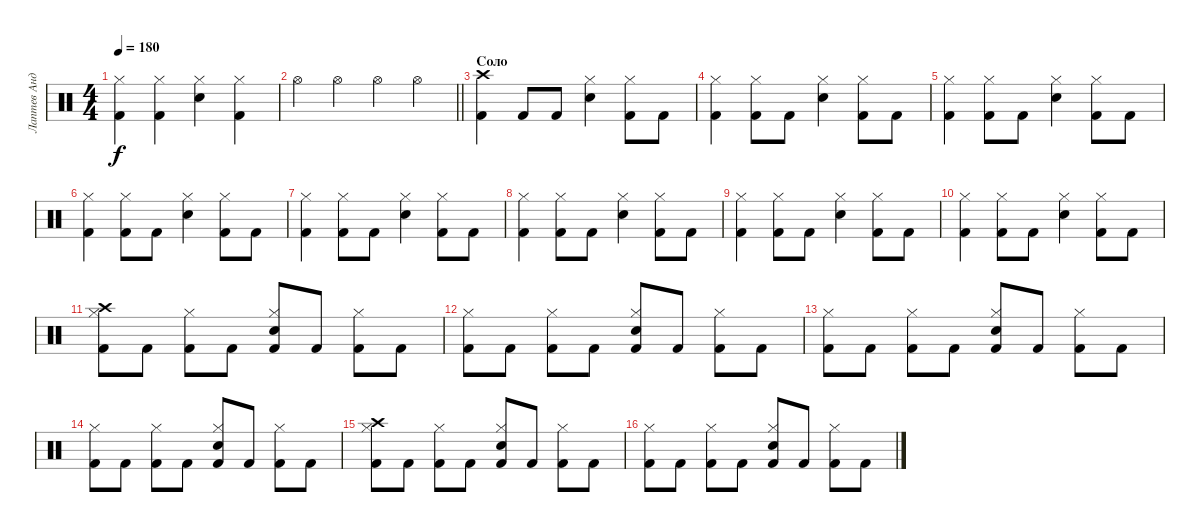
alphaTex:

\track ("Лаптев Андрей" "Лаптев Анд") {instrument percussion}
\staff {score}
\articulation defaults
\ts (4 4)
\tempo 180
\clef neutral
\ks c
("Kick (hit) 2" "Hi-Hat (closed)").4{dy f} ("Kick (hit) 2" "Hi-Hat (closed)").4 ("Snare (hit) 2" "Hi-Hat (closed)").4 ("Kick (hit) 2" "Hi-Hat (closed)").4 |
\barLineRight lightlight "Hi-Hat (open)".4 "Hi-Hat (open)".4 "Hi-Hat (open)".4 "Hi-Hat (open)".4
|
\section ("" "Соло")
("Kick (hit) 2" "Crash high (hit)").4 "Kick (hit) 2".8 "Kick (hit) 2".8 ("Snare (hit) 2" "Hi-Hat (closed)").4 ("Kick (hit) 2" "Hi-Hat (closed)").8 "Kick (hit) 2".8 |
("Kick (hit) 2" "Hi-Hat (closed)").4 ("Kick (hit) 2" "Hi-Hat (closed)").8 "Kick (hit) 2".8 ("Snare (hit) 2" "Hi-Hat (closed)").4 ("Kick (hit) 2" "Hi-Hat (closed)").8 "Kick (hit) 2".8 |
("Kick (hit) 2" "Hi-Hat (closed)").4 ("Kick (hit) 2" "Hi-Hat (closed)").8 "Kick (hit) 2".8 ("Snare (hit) 2" "Hi-Hat (closed)").4 ("Kick (hit) 2" "Hi-Hat (closed)").8 "Kick (hit) 2".8 |
("Kick (hit) 2" "Hi-Hat (closed)").4 ("Kick (hit) 2" "Hi-Hat (closed)").8 "Kick (hit) 2".8 ("Snare (hit) 2" "Hi-Hat (closed)").4 ("Kick (hit) 2" "Hi-Hat (closed)").8 "Kick (hit) 2".8 |
("Kick (hit) 2" "Hi-Hat (closed)").4 ("Kick (hit) 2" "Hi-Hat (closed)").8 "Kick (hit) 2".8 ("Snare (hit) 2" "Hi-Hat (closed)").4 ("Kick (hit) 2" "Hi-Hat (closed)").8 "Kick (hit) 2".8 |
("Kick (hit) 2" "Hi-Hat (closed)").4 ("Kick (hit) 2" "Hi-Hat (closed)").8 "Kick (hit) 2".8 ("Snare (hit) 2" "Hi-Hat (closed)").4 ("Kick (hit) 2" "Hi-Hat (closed)").8 "Kick (hit) 2".8 |
("Kick (hit) 2" "Hi-Hat (closed)").4 ("Kick (hit) 2" "Hi-Hat (closed)").8 "Kick (hit) 2".8 ("Snare (hit) 2" "Hi-Hat (closed)").4 ("Kick (hit) 2" "Hi-Hat (closed)").8 "Kick (hit) 2".8 |
("Kick (hit) 2" "Hi-Hat (closed)").4 ("Kick (hit) 2" "Hi-Hat (closed)").8 "Kick (hit) 2".8 ("Snare (hit) 2" "Hi-Hat (closed)").4 ("Kick (hit) 2" "Hi-Hat (closed)").8 "Kick (hit) 2".8 |
("Kick (hit) 2" "Hi-Hat (closed)" "Crash high (hit)").8 "Kick (hit) 2".8 ("Kick (hit) 2" "Hi-Hat (closed)").8 "Kick (hit) 2".8 ("Snare (hit) 2" "Kick (hit) 2" "Hi-Hat (closed)").8 "Kick (hit) 2".8 ("Kick (hit) 2" "Hi-Hat (closed)").8 "Kick (hit) 2".8 |
("Kick (hit) 2" "Hi-Hat (closed)").8 "Kick (hit) 2".8 ("Kick (hit) 2" "Hi-Hat (closed)").8 "Kick (hit) 2".8 ("Snare (hit) 2" "Kick (hit) 2" "Hi-Hat (closed)").8 "Kick (hit) 2".8 ("Kick (hit) 2" "Hi-Hat (closed)").8 "Kick (hit) 2".8 |
("Kick (hit) 2" "Hi-Hat (closed)").8 "Kick (hit) 2".8 ("Kick (hit) 2" "Hi-Hat (closed)").8 "Kick (hit) 2".8 ("Snare (hit) 2" "Kick (hit) 2" "Hi-Hat (closed)").8 "Kick (hit) 2".8 ("Kick (hit) 2" "Hi-Hat (closed)").8 "Kick (hit) 2".8 |
("Kick (hit) 2" "Hi-Hat (closed)").8 "Kick (hit) 2".8 ("Kick (hit) 2" "Hi-Hat (closed)").8 "Kick (hit) 2".8 ("Snare (hit) 2" "Kick (hit) 2" "Hi-Hat (closed)").8 "Kick (hit) 2".8 ("Kick (hit) 2" "Hi-Hat (closed)").8 "Kick (hit) 2".8 |
("Kick (hit) 2" "Hi-Hat (closed)" "Crash high (hit)").8 "Kick (hit) 2".8 ("Kick (hit) 2" "Hi-Hat (closed)").8 "Kick (hit) 2".8 ("Snare (hit) 2" "Kick (hit) 2" "Hi-Hat (closed)").8 "Kick (hit) 2".8 ("Kick (hit) 2" "Hi-Hat (closed)").8 "Kick (hit) 2".8 |
("Kick (hit) 2" "Hi-Hat (closed)").8 "Kick (hit) 2".8 ("Kick (hit) 2" "Hi-Hat (closed)").8 "Kick (hit) 2".8 ("Snare (hit) 2" "Kick (hit) 2" "Hi-Hat (closed)").8 "Kick (hit) 2".8 ("Kick (hit) 2" "Hi-Hat (closed)").8 "Kick (hit) 2".8
